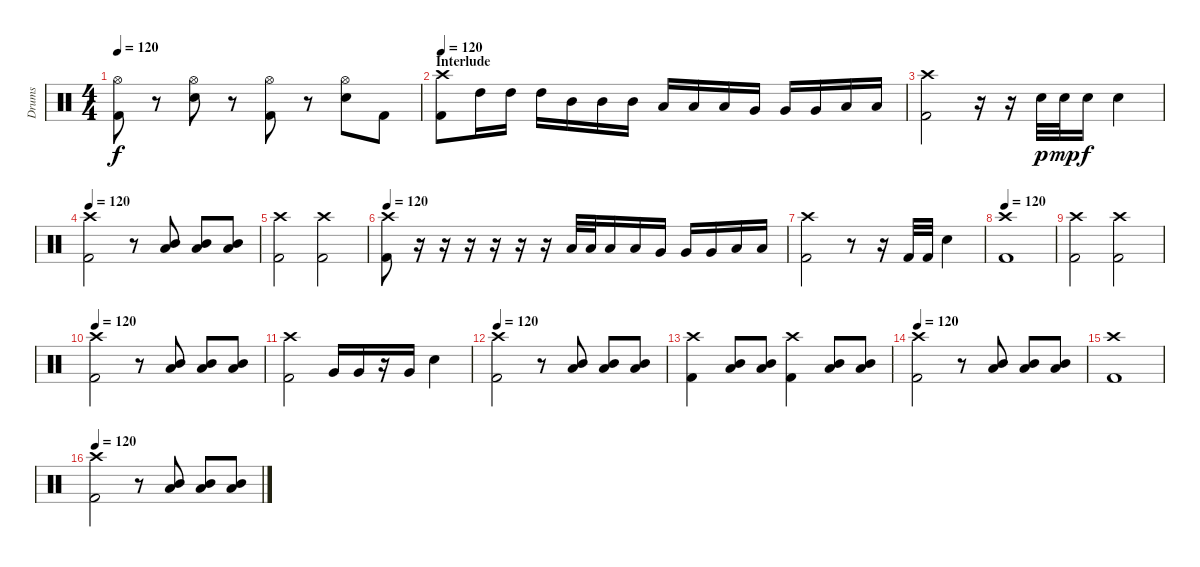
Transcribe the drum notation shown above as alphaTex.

\track ("Drums" "Drums") {instrument percussion}
\staff {score}
\articulation defaults
\ts (4 4)
\tempo 120
\clef neutral
\ks c
("Hi-Hat (open)" "Kick (hit) 2").8{dy f} r.8 ("Hi-Hat (open)" "Electric Snare (hit)").8 r.8 ("Hi-Hat (open)" "Kick (hit) 2").8 r.8 ("Hi-Hat (open)" "Electric Snare (hit)").8 "Kick (hit) 2".8 |
\section ("" "Interlude")
\tempo 120
("Crash high (hit)" "Kick (hit) 2").8 "High Tom (hit)".16 "High Tom (hit)".16 "High Tom (hit)".16 "Mid Tom (hit)".16 "Mid Tom (hit)".16 "Mid Tom (hit)".16 "Low Tom (hit)".16 "Low Tom (hit)".16 "Low Tom (hit)".16 "Very Low Tom (hit)".16 "Very Low Tom (hit)".16 "Very Low Tom (hit)".16 "Low Floor Tom (hit)".16 "Low Floor Tom (hit)".16 |
("Crash high (hit)" "Kick (hit) 2").2 r.16 r.16 "Electric Snare (hit)".32{dy p} "Electric Snare (hit)".32{dy mp} "Electric Snare (hit)".16{dy f} "Electric Snare (hit)".4 |
\tempo 120
("Crash high (hit)" "Kick (hit) 2").2 r.8 ("Mid Tom (hit)" "Low Tom (hit)").8 ("Mid Tom (hit)" "Low Tom (hit)").8 ("Mid Tom (hit)" "Low Tom (hit)").8 |
("Crash high (hit)" "Kick (hit) 2").2 ("Crash high (hit)" "Kick (hit) 2").2 |
\tempo 120
("Crash high (hit)" "Kick (hit) 2").8 r.16 r.16 r.16 r.16 r.16 r.16 "Low Tom (hit)".32 "Low Tom (hit)".32 "Low Tom (hit)".16 "Low Tom (hit)".16 "Very Low Tom (hit)".16 "Very Low Tom (hit)".16 "Very Low Tom (hit)".16 "Low Floor Tom (hit)".16 "Low Floor Tom (hit)".16 |
("Crash high (hit)" "Kick (hit) 2").2 r.8 r.16 "Kick (hit) 2".32 "Kick (hit) 2".32 "Electric Snare (hit)".4 |
\tempo 120
("Crash high (hit)" "Kick (hit) 2").1 |
("Crash high (hit)" "Kick (hit) 2").2 ("Crash high (hit)" "Kick (hit) 2").2 |
\tempo 120
("Crash high (hit)" "Kick (hit) 2").2 r.8 ("Mid Tom (hit)" "Low Tom (hit)").8 ("Mid Tom (hit)" "Low Tom (hit)").8 ("Mid Tom (hit)" "Low Tom (hit)").8 |
("Crash high (hit)" "Kick (hit) 2").2 "Very Low Tom (hit)".16 "Very Low Tom (hit)".16 r.16 "Very Low Tom (hit)".16 "Electric Snare (hit)".4 |
\tempo 120
("Crash high (hit)" "Kick (hit) 2").2 r.8 ("Mid Tom (hit)" "Low Tom (hit)").8 ("Mid Tom (hit)" "Low Tom (hit)").8 ("Mid Tom (hit)" "Low Tom (hit)").8 |
("Crash high (hit)" "Kick (hit) 2").4 ("Mid Tom (hit)" "Low Tom (hit)").8 ("Mid Tom (hit)" "Low Tom (hit)").8 ("Crash high (hit)" "Kick (hit) 2").4 ("Mid Tom (hit)" "Low Tom (hit)").8 ("Mid Tom (hit)" "Low Tom (hit)").8 |
\tempo 120
("Crash high (hit)" "Kick (hit) 2").2 r.8 ("Mid Tom (hit)" "Low Tom (hit)").8 ("Mid Tom (hit)" "Low Tom (hit)").8 ("Mid Tom (hit)" "Low Tom (hit)").8 |
("Crash high (hit)" "Kick (hit) 2").1 |
\tempo 120
("Crash high (hit)" "Kick (hit) 2").2 r.8 ("Mid Tom (hit)" "Low Tom (hit)").8 ("Mid Tom (hit)" "Low Tom (hit)").8 ("Mid Tom (hit)" "Low Tom (hit)").8
